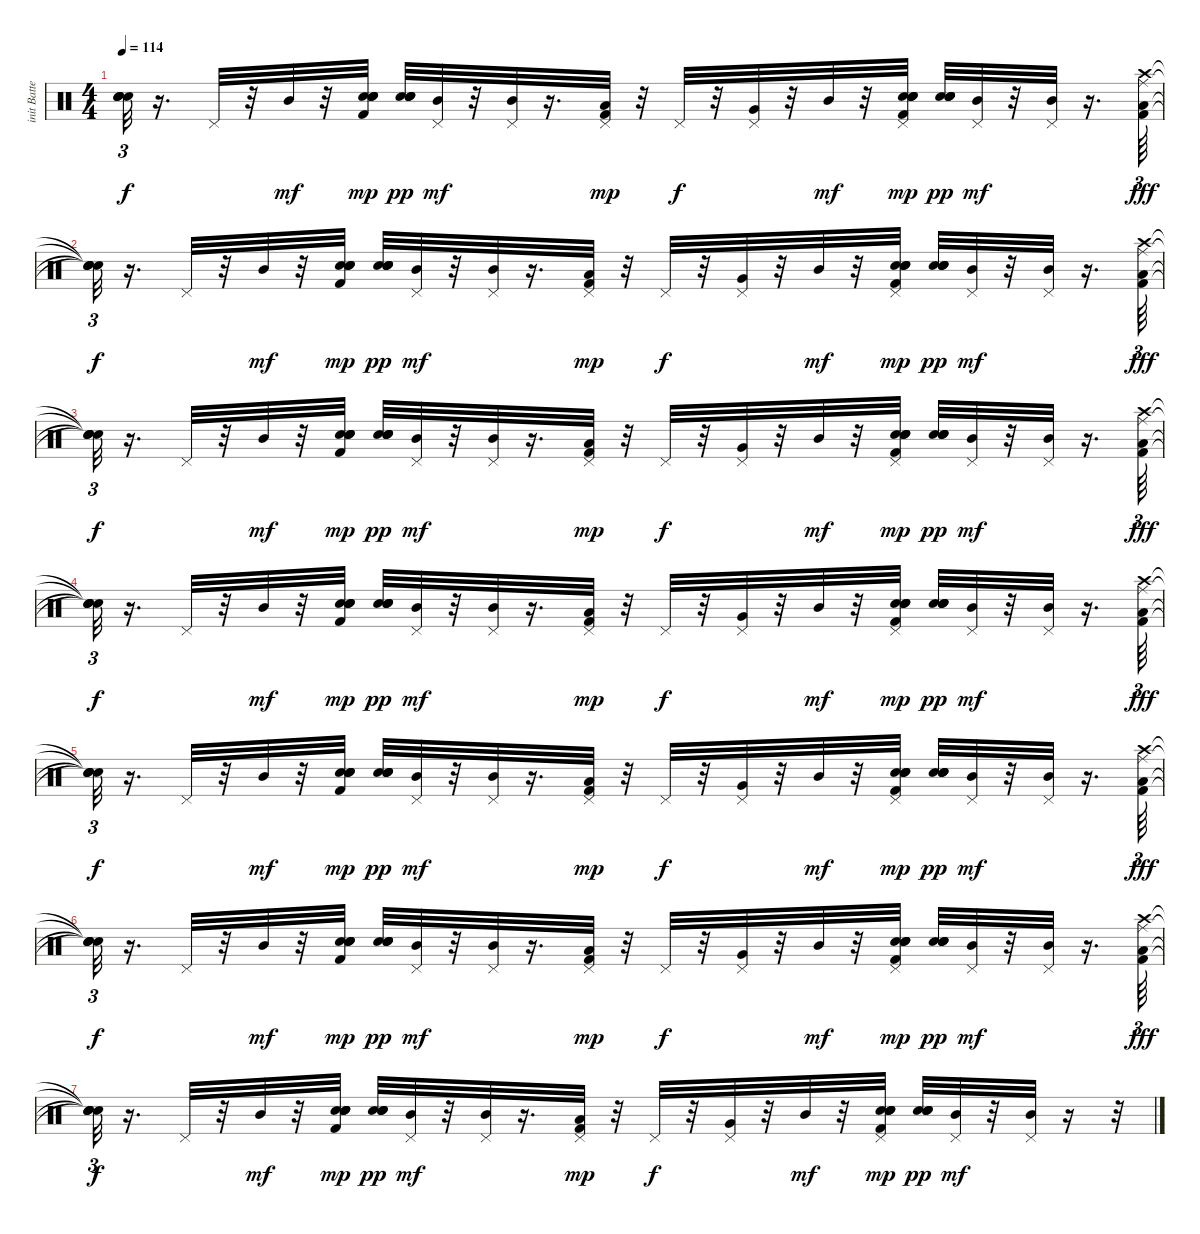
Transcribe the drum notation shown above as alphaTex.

\track ("init Batterie" "init Batte") {instrument percussion}
\staff {score}
\articulation defaults
\ts (4 4)
\tempo 114
\clef neutral
\ks c
("Snare (hit)"{t} "Snare (hit)"{t} "Snare (hit)"{t} "Snare (hit)"{t}).32{tu (3 2) dy f} r.16{d} "Pedal Hi-Hat (hit)".32 r.32 "Mid Tom (hit)".32{dy mf} r.32 ("Snare (hit) 2" "Hand Clap (hit)" "Kick (hit) 2" "Snare (hit) 2" "Hand Clap (hit)").32{dy mp} ("Snare (hit) 2" "Snare (hit) 2" "Hand Clap (hit)" "Hand Clap (hit)").32{dy pp} ("Pedal Hi-Hat (hit)" "Mid Tom (hit)").32{dy mf} r.32 ("Pedal Hi-Hat (hit)" "Mid Tom (hit)").32 r.16{d} ("Kick (hit) 2" "Pedal Hi-Hat (hit)" "Low Tom (hit)").32{dy mp} r.32 "Pedal Hi-Hat (hit)".32{dy f} r.32 ("Very Low Tom (hit)" "Pedal Hi-Hat (hit)").32 r.32 "Mid Tom (hit)".32{dy mf} r.32 ("Snare (hit) 2" "Hand Clap (hit)" "Kick (hit) 2" "Snare (hit) 2" "Hand Clap (hit)" "Pedal Hi-Hat (hit)").32{dy mp} ("Snare (hit) 2" "Snare (hit) 2" "Hand Clap (hit)" "Hand Clap (hit)").32{dy pp} ("Pedal Hi-Hat (hit)" "Mid Tom (hit)").32{dy mf} r.32 ("Pedal Hi-Hat (hit)" "Mid Tom (hit)").32 r.16{d} ("Kick (hit) 2" "Low Tom (hit)" "Crash high (hit)" "Ride (middle)").64{tu (3 2) dy fff} |
("Snare (hit)"{t} "Snare (hit)"{t} "Snare (hit)"{t} "Snare (hit)"{t}).32{tu (3 2) dy f} r.16{d} "Pedal Hi-Hat (hit)".32 r.32 "Mid Tom (hit)".32{dy mf} r.32 ("Snare (hit) 2" "Hand Clap (hit)" "Kick (hit) 2" "Snare (hit) 2" "Hand Clap (hit)").32{dy mp} ("Snare (hit) 2" "Snare (hit) 2" "Hand Clap (hit)" "Hand Clap (hit)").32{dy pp} ("Pedal Hi-Hat (hit)" "Mid Tom (hit)").32{dy mf} r.32 ("Pedal Hi-Hat (hit)" "Mid Tom (hit)").32 r.16{d} ("Kick (hit) 2" "Pedal Hi-Hat (hit)" "Low Tom (hit)").32{dy mp} r.32 "Pedal Hi-Hat (hit)".32{dy f} r.32 ("Very Low Tom (hit)" "Pedal Hi-Hat (hit)").32 r.32 "Mid Tom (hit)".32{dy mf} r.32 ("Snare (hit) 2" "Hand Clap (hit)" "Kick (hit) 2" "Snare (hit) 2" "Hand Clap (hit)" "Pedal Hi-Hat (hit)").32{dy mp} ("Snare (hit) 2" "Snare (hit) 2" "Hand Clap (hit)" "Hand Clap (hit)").32{dy pp} ("Pedal Hi-Hat (hit)" "Mid Tom (hit)").32{dy mf} r.32 ("Pedal Hi-Hat (hit)" "Mid Tom (hit)").32 r.16{d} ("Kick (hit) 2" "Low Tom (hit)" "Crash high (hit)" "Ride (middle)").64{tu (3 2) dy fff} |
("Snare (hit)"{t} "Snare (hit)"{t} "Snare (hit)"{t} "Snare (hit)"{t}).32{tu (3 2) dy f} r.16{d} "Pedal Hi-Hat (hit)".32 r.32 "Mid Tom (hit)".32{dy mf} r.32 ("Snare (hit) 2" "Hand Clap (hit)" "Kick (hit) 2" "Snare (hit) 2" "Hand Clap (hit)").32{dy mp} ("Snare (hit) 2" "Snare (hit) 2" "Hand Clap (hit)" "Hand Clap (hit)").32{dy pp} ("Pedal Hi-Hat (hit)" "Mid Tom (hit)").32{dy mf} r.32 ("Pedal Hi-Hat (hit)" "Mid Tom (hit)").32 r.16{d} ("Kick (hit) 2" "Pedal Hi-Hat (hit)" "Low Tom (hit)").32{dy mp} r.32 "Pedal Hi-Hat (hit)".32{dy f} r.32 ("Very Low Tom (hit)" "Pedal Hi-Hat (hit)").32 r.32 "Mid Tom (hit)".32{dy mf} r.32 ("Snare (hit) 2" "Hand Clap (hit)" "Kick (hit) 2" "Snare (hit) 2" "Hand Clap (hit)" "Pedal Hi-Hat (hit)").32{dy mp} ("Snare (hit) 2" "Snare (hit) 2" "Hand Clap (hit)" "Hand Clap (hit)").32{dy pp} ("Pedal Hi-Hat (hit)" "Mid Tom (hit)").32{dy mf} r.32 ("Pedal Hi-Hat (hit)" "Mid Tom (hit)").32 r.16{d} ("Kick (hit) 2" "Low Tom (hit)" "Crash high (hit)" "Ride (middle)").64{tu (3 2) dy fff} |
("Snare (hit)"{t} "Snare (hit)"{t} "Snare (hit)"{t} "Snare (hit)"{t}).32{tu (3 2) dy f} r.16{d} "Pedal Hi-Hat (hit)".32 r.32 "Mid Tom (hit)".32{dy mf} r.32 ("Snare (hit) 2" "Hand Clap (hit)" "Kick (hit) 2" "Snare (hit) 2" "Hand Clap (hit)").32{dy mp} ("Snare (hit) 2" "Snare (hit) 2" "Hand Clap (hit)" "Hand Clap (hit)").32{dy pp} ("Pedal Hi-Hat (hit)" "Mid Tom (hit)").32{dy mf} r.32 ("Pedal Hi-Hat (hit)" "Mid Tom (hit)").32 r.16{d} ("Kick (hit) 2" "Pedal Hi-Hat (hit)" "Low Tom (hit)").32{dy mp} r.32 "Pedal Hi-Hat (hit)".32{dy f} r.32 ("Very Low Tom (hit)" "Pedal Hi-Hat (hit)").32 r.32 "Mid Tom (hit)".32{dy mf} r.32 ("Snare (hit) 2" "Hand Clap (hit)" "Kick (hit) 2" "Snare (hit) 2" "Hand Clap (hit)" "Pedal Hi-Hat (hit)").32{dy mp} ("Snare (hit) 2" "Snare (hit) 2" "Hand Clap (hit)" "Hand Clap (hit)").32{dy pp} ("Pedal Hi-Hat (hit)" "Mid Tom (hit)").32{dy mf} r.32 ("Pedal Hi-Hat (hit)" "Mid Tom (hit)").32 r.16{d} ("Kick (hit) 2" "Low Tom (hit)" "Crash high (hit)" "Ride (middle)").64{tu (3 2) dy fff} |
("Snare (hit)"{t} "Snare (hit)"{t} "Snare (hit)"{t} "Snare (hit)"{t}).32{tu (3 2) dy f} r.16{d} "Pedal Hi-Hat (hit)".32 r.32 "Mid Tom (hit)".32{dy mf} r.32 ("Snare (hit) 2" "Hand Clap (hit)" "Kick (hit) 2" "Snare (hit) 2" "Hand Clap (hit)").32{dy mp} ("Snare (hit) 2" "Snare (hit) 2" "Hand Clap (hit)" "Hand Clap (hit)").32{dy pp} ("Pedal Hi-Hat (hit)" "Mid Tom (hit)").32{dy mf} r.32 ("Pedal Hi-Hat (hit)" "Mid Tom (hit)").32 r.16{d} ("Kick (hit) 2" "Pedal Hi-Hat (hit)" "Low Tom (hit)").32{dy mp} r.32 "Pedal Hi-Hat (hit)".32{dy f} r.32 ("Very Low Tom (hit)" "Pedal Hi-Hat (hit)").32 r.32 "Mid Tom (hit)".32{dy mf} r.32 ("Snare (hit) 2" "Hand Clap (hit)" "Kick (hit) 2" "Snare (hit) 2" "Hand Clap (hit)" "Pedal Hi-Hat (hit)").32{dy mp} ("Snare (hit) 2" "Snare (hit) 2" "Hand Clap (hit)" "Hand Clap (hit)").32{dy pp} ("Pedal Hi-Hat (hit)" "Mid Tom (hit)").32{dy mf} r.32 ("Pedal Hi-Hat (hit)" "Mid Tom (hit)").32 r.16{d} ("Kick (hit) 2" "Low Tom (hit)" "Crash high (hit)" "Ride (middle)").64{tu (3 2) dy fff} |
("Snare (hit)"{t} "Snare (hit)"{t} "Snare (hit)"{t} "Snare (hit)"{t}).32{tu (3 2) dy f} r.16{d} "Pedal Hi-Hat (hit)".32 r.32 "Mid Tom (hit)".32{dy mf} r.32 ("Snare (hit) 2" "Hand Clap (hit)" "Kick (hit) 2" "Snare (hit) 2" "Hand Clap (hit)").32{dy mp} ("Snare (hit) 2" "Snare (hit) 2" "Hand Clap (hit)" "Hand Clap (hit)").32{dy pp} ("Pedal Hi-Hat (hit)" "Mid Tom (hit)").32{dy mf} r.32 ("Pedal Hi-Hat (hit)" "Mid Tom (hit)").32 r.16{d} ("Kick (hit) 2" "Pedal Hi-Hat (hit)" "Low Tom (hit)").32{dy mp} r.32 "Pedal Hi-Hat (hit)".32{dy f} r.32 ("Very Low Tom (hit)" "Pedal Hi-Hat (hit)").32 r.32 "Mid Tom (hit)".32{dy mf} r.32 ("Snare (hit) 2" "Hand Clap (hit)" "Kick (hit) 2" "Snare (hit) 2" "Hand Clap (hit)" "Pedal Hi-Hat (hit)").32{dy mp} ("Snare (hit) 2" "Snare (hit) 2" "Hand Clap (hit)" "Hand Clap (hit)").32{dy pp} ("Pedal Hi-Hat (hit)" "Mid Tom (hit)").32{dy mf} r.32 ("Pedal Hi-Hat (hit)" "Mid Tom (hit)").32 r.16{d} ("Kick (hit) 2" "Low Tom (hit)" "Crash high (hit)" "Ride (middle)").64{tu (3 2) dy fff} |
("Snare (hit)"{t} "Snare (hit)"{t} "Snare (hit)"{t} "Snare (hit)"{t}).32{tu (3 2) dy f} r.16{d} "Pedal Hi-Hat (hit)".32 r.32 "Mid Tom (hit)".32{dy mf} r.32 ("Snare (hit) 2" "Hand Clap (hit)" "Kick (hit) 2" "Snare (hit) 2" "Hand Clap (hit)").32{dy mp} ("Snare (hit) 2" "Snare (hit) 2" "Hand Clap (hit)" "Hand Clap (hit)").32{dy pp} ("Pedal Hi-Hat (hit)" "Mid Tom (hit)").32{dy mf} r.32 ("Pedal Hi-Hat (hit)" "Mid Tom (hit)").32 r.16{d} ("Kick (hit) 2" "Pedal Hi-Hat (hit)" "Low Tom (hit)").32{dy mp} r.32 "Pedal Hi-Hat (hit)".32{dy f} r.32 ("Very Low Tom (hit)" "Pedal Hi-Hat (hit)").32 r.32 "Mid Tom (hit)".32{dy mf} r.32 ("Snare (hit) 2" "Hand Clap (hit)" "Kick (hit) 2" "Snare (hit) 2" "Hand Clap (hit)" "Pedal Hi-Hat (hit)").32{dy mp} ("Snare (hit) 2" "Snare (hit) 2" "Hand Clap (hit)" "Hand Clap (hit)").32{dy pp} ("Pedal Hi-Hat (hit)" "Mid Tom (hit)").32{dy mf} r.32 ("Pedal Hi-Hat (hit)" "Mid Tom (hit)").32 r.16 r.32
